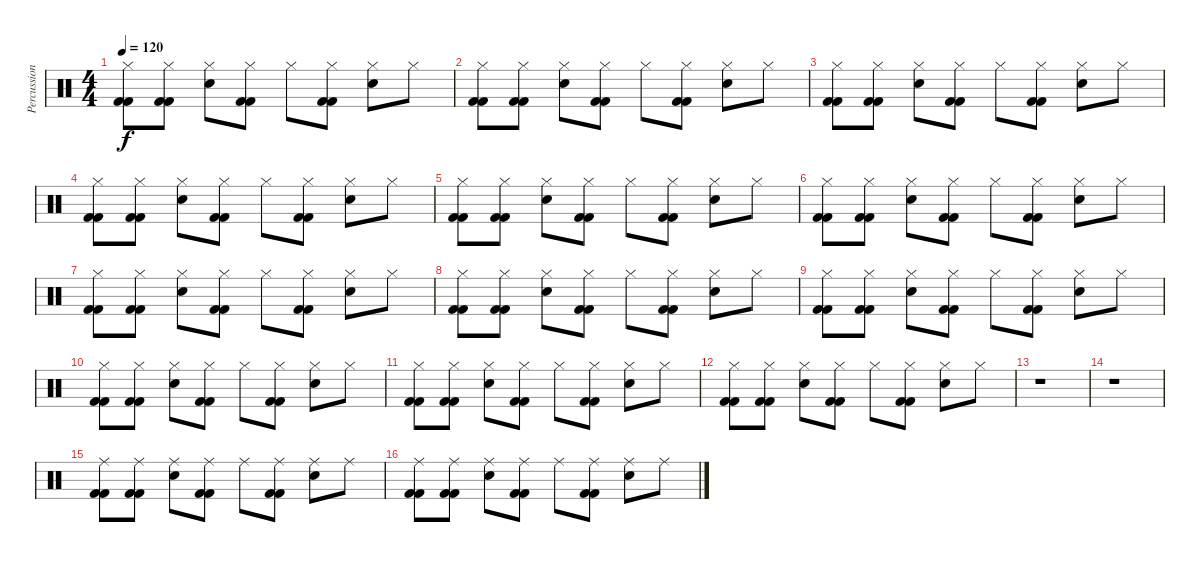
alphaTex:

\track ("Percussion" "Percussion") {instrument percussion}
\staff {score}
\articulation defaults
\ts (4 4)
\tempo 120
\clef neutral
\ks c
("Hi-Hat (closed)" "Kick (hit) 2" "Kick (hit) 2").8{dy f} ("Hi-Hat (closed)" "Kick (hit) 2" "Kick (hit) 2").8 ("Hi-Hat (closed)" "Snare (hit) 2").8 ("Hi-Hat (closed)" "Kick (hit) 2" "Kick (hit) 2").8 "Hi-Hat (closed)".8 ("Hi-Hat (closed)" "Kick (hit) 2" "Kick (hit) 2").8 ("Hi-Hat (closed)" "Snare (hit) 2").8 "Hi-Hat (closed)".8 |
("Hi-Hat (closed)" "Kick (hit) 2" "Kick (hit) 2").8 ("Hi-Hat (closed)" "Kick (hit) 2" "Kick (hit) 2").8 ("Hi-Hat (closed)" "Snare (hit) 2").8 ("Hi-Hat (closed)" "Kick (hit) 2" "Kick (hit) 2").8 "Hi-Hat (closed)".8 ("Hi-Hat (closed)" "Kick (hit) 2" "Kick (hit) 2").8 ("Hi-Hat (closed)" "Snare (hit) 2").8 "Hi-Hat (closed)".8 |
("Hi-Hat (closed)" "Kick (hit) 2" "Kick (hit) 2").8 ("Hi-Hat (closed)" "Kick (hit) 2" "Kick (hit) 2").8 ("Hi-Hat (closed)" "Snare (hit) 2").8 ("Hi-Hat (closed)" "Kick (hit) 2" "Kick (hit) 2").8 "Hi-Hat (closed)".8 ("Hi-Hat (closed)" "Kick (hit) 2" "Kick (hit) 2").8 ("Hi-Hat (closed)" "Snare (hit) 2").8 "Hi-Hat (closed)".8 |
("Hi-Hat (closed)" "Kick (hit) 2" "Kick (hit) 2").8 ("Hi-Hat (closed)" "Kick (hit) 2" "Kick (hit) 2").8 ("Hi-Hat (closed)" "Snare (hit) 2").8 ("Hi-Hat (closed)" "Kick (hit) 2" "Kick (hit) 2").8 "Hi-Hat (closed)".8 ("Hi-Hat (closed)" "Kick (hit) 2" "Kick (hit) 2").8 ("Hi-Hat (closed)" "Snare (hit) 2").8 "Hi-Hat (closed)".8 |
("Hi-Hat (closed)" "Kick (hit) 2" "Kick (hit) 2").8 ("Hi-Hat (closed)" "Kick (hit) 2" "Kick (hit) 2").8 ("Hi-Hat (closed)" "Snare (hit) 2").8 ("Hi-Hat (closed)" "Kick (hit) 2" "Kick (hit) 2").8 "Hi-Hat (closed)".8 ("Hi-Hat (closed)" "Kick (hit) 2" "Kick (hit) 2").8 ("Hi-Hat (closed)" "Snare (hit) 2").8 "Hi-Hat (closed)".8 |
("Hi-Hat (closed)" "Kick (hit) 2" "Kick (hit) 2").8 ("Hi-Hat (closed)" "Kick (hit) 2" "Kick (hit) 2").8 ("Hi-Hat (closed)" "Snare (hit) 2").8 ("Hi-Hat (closed)" "Kick (hit) 2" "Kick (hit) 2").8 "Hi-Hat (closed)".8 ("Hi-Hat (closed)" "Kick (hit) 2" "Kick (hit) 2").8 ("Hi-Hat (closed)" "Snare (hit) 2").8 "Hi-Hat (closed)".8 |
("Hi-Hat (closed)" "Kick (hit) 2" "Kick (hit) 2").8 ("Hi-Hat (closed)" "Kick (hit) 2" "Kick (hit) 2").8 ("Hi-Hat (closed)" "Snare (hit) 2").8 ("Hi-Hat (closed)" "Kick (hit) 2" "Kick (hit) 2").8 "Hi-Hat (closed)".8 ("Hi-Hat (closed)" "Kick (hit) 2" "Kick (hit) 2").8 ("Hi-Hat (closed)" "Snare (hit) 2").8 "Hi-Hat (closed)".8 |
("Hi-Hat (closed)" "Kick (hit) 2" "Kick (hit) 2").8 ("Hi-Hat (closed)" "Kick (hit) 2" "Kick (hit) 2").8 ("Hi-Hat (closed)" "Snare (hit) 2").8 ("Hi-Hat (closed)" "Kick (hit) 2" "Kick (hit) 2").8 "Hi-Hat (closed)".8 ("Hi-Hat (closed)" "Kick (hit) 2" "Kick (hit) 2").8 ("Hi-Hat (closed)" "Snare (hit) 2").8 "Hi-Hat (closed)".8 |
("Hi-Hat (closed)" "Kick (hit) 2" "Kick (hit) 2").8 ("Hi-Hat (closed)" "Kick (hit) 2" "Kick (hit) 2").8 ("Hi-Hat (closed)" "Snare (hit) 2").8 ("Hi-Hat (closed)" "Kick (hit) 2" "Kick (hit) 2").8 "Hi-Hat (closed)".8 ("Hi-Hat (closed)" "Kick (hit) 2" "Kick (hit) 2").8 ("Hi-Hat (closed)" "Snare (hit) 2").8 "Hi-Hat (closed)".8 |
("Hi-Hat (closed)" "Kick (hit) 2" "Kick (hit) 2").8 ("Hi-Hat (closed)" "Kick (hit) 2" "Kick (hit) 2").8 ("Hi-Hat (closed)" "Snare (hit) 2").8 ("Hi-Hat (closed)" "Kick (hit) 2" "Kick (hit) 2").8 "Hi-Hat (closed)".8 ("Hi-Hat (closed)" "Kick (hit) 2" "Kick (hit) 2").8 ("Hi-Hat (closed)" "Snare (hit) 2").8 "Hi-Hat (closed)".8 |
("Hi-Hat (closed)" "Kick (hit) 2" "Kick (hit) 2").8 ("Hi-Hat (closed)" "Kick (hit) 2" "Kick (hit) 2").8 ("Hi-Hat (closed)" "Snare (hit) 2").8 ("Hi-Hat (closed)" "Kick (hit) 2" "Kick (hit) 2").8 "Hi-Hat (closed)".8 ("Hi-Hat (closed)" "Kick (hit) 2" "Kick (hit) 2").8 ("Hi-Hat (closed)" "Snare (hit) 2").8 "Hi-Hat (closed)".8 |
("Hi-Hat (closed)" "Kick (hit) 2" "Kick (hit) 2").8 ("Hi-Hat (closed)" "Kick (hit) 2" "Kick (hit) 2").8 ("Hi-Hat (closed)" "Snare (hit) 2").8 ("Hi-Hat (closed)" "Kick (hit) 2" "Kick (hit) 2").8 "Hi-Hat (closed)".8 ("Hi-Hat (closed)" "Kick (hit) 2" "Kick (hit) 2").8 ("Hi-Hat (closed)" "Snare (hit) 2").8 "Hi-Hat (closed)".8 |
r.1 |
r.1 |
("Ride (middle)" "Kick (hit) 2" "Kick (hit) 2").8 ("Ride (middle)" "Kick (hit) 2" "Kick (hit) 2").8 ("Ride (middle)" "Snare (hit) 2").8 ("Ride (middle)" "Kick (hit) 2" "Kick (hit) 2").8 "Ride (middle)".8 ("Ride (middle)" "Kick (hit) 2" "Kick (hit) 2").8 ("Ride (middle)" "Snare (hit) 2").8 "Ride (middle)".8 |
("Ride (middle)" "Kick (hit) 2" "Kick (hit) 2").8 ("Ride (middle)" "Kick (hit) 2" "Kick (hit) 2").8 ("Ride (middle)" "Snare (hit) 2").8 ("Ride (middle)" "Kick (hit) 2" "Kick (hit) 2").8 "Ride (middle)".8 ("Ride (middle)" "Kick (hit) 2" "Kick (hit) 2").8 ("Ride (middle)" "Snare (hit) 2").8 "Ride (middle)".8
